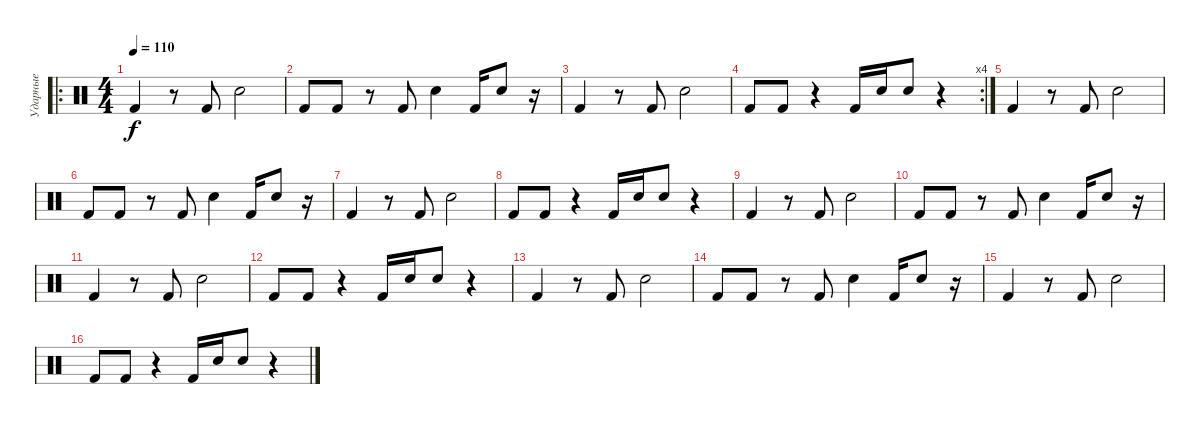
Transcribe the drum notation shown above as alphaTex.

\track ("Ударные" "Ударные") {instrument percussion}
\staff {score}
\articulation defaults
\ro
\ts (4 4)
\tempo 110
\clef neutral
\ks c "Kick (hit) 2".4{dy f}
r.8 "Kick (hit) 2".8 "Snare (hit) 2".2 |
"Kick (hit) 2".8 "Kick (hit) 2".8 r.8 "Kick (hit) 2".8 "Snare (hit) 2".4 "Kick (hit) 2".16 "Snare (hit) 2".8 r.16 |
"Kick (hit) 2".4 r.8 "Kick (hit) 2".8 "Snare (hit) 2".2 |
\rc 4 "Kick (hit) 2".8 "Kick (hit) 2".8
r.4 "Kick (hit) 2".16 "Snare (hit) 2".16 "Snare (hit) 2".8 r.4 |
"Kick (hit) 2".4 r.8 "Kick (hit) 2".8 "Snare (hit) 2".2 |
"Kick (hit) 2".8 "Kick (hit) 2".8 r.8 "Kick (hit) 2".8 "Snare (hit) 2".4 "Kick (hit) 2".16 "Snare (hit) 2".8 r.16 |
"Kick (hit) 2".4 r.8 "Kick (hit) 2".8 "Snare (hit) 2".2 |
"Kick (hit) 2".8 "Kick (hit) 2".8 r.4 "Kick (hit) 2".16 "Snare (hit) 2".16 "Snare (hit) 2".8 r.4 |
"Kick (hit) 2".4 r.8 "Kick (hit) 2".8 "Snare (hit) 2".2 |
"Kick (hit) 2".8 "Kick (hit) 2".8 r.8 "Kick (hit) 2".8 "Snare (hit) 2".4 "Kick (hit) 2".16 "Snare (hit) 2".8 r.16 |
"Kick (hit) 2".4 r.8 "Kick (hit) 2".8 "Snare (hit) 2".2 |
"Kick (hit) 2".8 "Kick (hit) 2".8 r.4 "Kick (hit) 2".16 "Snare (hit) 2".16 "Snare (hit) 2".8 r.4 |
"Kick (hit) 2".4 r.8 "Kick (hit) 2".8 "Snare (hit) 2".2 |
"Kick (hit) 2".8 "Kick (hit) 2".8 r.8 "Kick (hit) 2".8 "Snare (hit) 2".4 "Kick (hit) 2".16 "Snare (hit) 2".8 r.16 |
"Kick (hit) 2".4 r.8 "Kick (hit) 2".8 "Snare (hit) 2".2 |
"Kick (hit) 2".8 "Kick (hit) 2".8 r.4 "Kick (hit) 2".16 "Snare (hit) 2".16 "Snare (hit) 2".8 r.4
